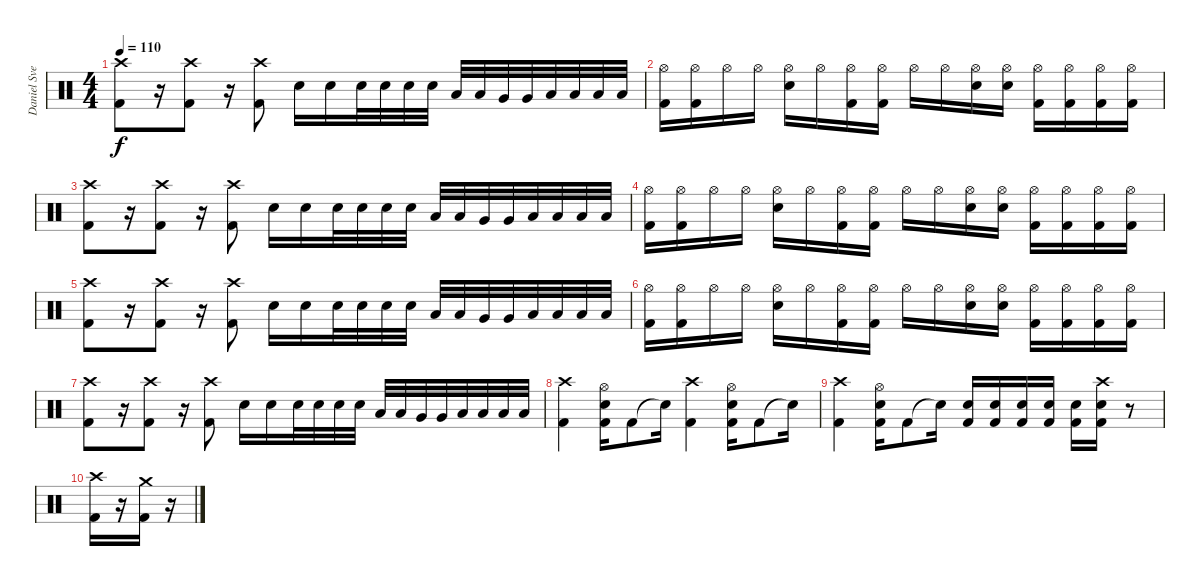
\track ("Daniel Svensson" "Daniel Sve") {instrument percussion}
\staff {score}
\articulation defaults
\ts (4 4)
\tempo 110
\clef neutral
\ks c
("Crash high (hit)" "Kick (hit) 2").8{dy f} r.16 ("Crash high (hit)" "Kick (hit) 2").8 r.16 ("Crash high (hit)" "Kick (hit) 2").8 "Snare (hit) 2".16 "Snare (hit) 2".16 "Snare (hit) 2".32 "Snare (hit) 2".32 "Snare (hit) 2".32 "Snare (hit) 2".32 "Low Tom (hit)".32 "Low Tom (hit)".32 "Very Low Tom (hit)".32 "Very Low Tom (hit)".32 "Low Floor Tom (hit)".32 "Low Floor Tom (hit)".32 "Low Floor Tom (hit)".32 "Low Floor Tom (hit)".32 |
("Hi-Hat (open)" "Kick (hit) 2").16 ("Hi-Hat (open)" "Kick (hit) 2").16 "Hi-Hat (open)".16 "Hi-Hat (open)".16 ("Hi-Hat (open)" "Snare (hit) 2").16 "Hi-Hat (open)".16 ("Hi-Hat (open)" "Kick (hit) 2").16 ("Hi-Hat (open)" "Kick (hit) 2").16 "Hi-Hat (open)".16 "Hi-Hat (open)".16 ("Hi-Hat (open)" "Snare (hit) 2").16 ("Hi-Hat (open)" "Snare (hit) 2").16 ("Hi-Hat (open)" "Kick (hit) 2").16 ("Hi-Hat (open)" "Kick (hit) 2").16 ("Hi-Hat (open)" "Kick (hit) 2").16 ("Hi-Hat (open)" "Kick (hit) 2").16 |
("Crash high (hit)" "Kick (hit) 2").8 r.16 ("Crash high (hit)" "Kick (hit) 2").8 r.16 ("Crash high (hit)" "Kick (hit) 2").8 "Snare (hit) 2".16 "Snare (hit) 2".16 "Snare (hit) 2".32 "Snare (hit) 2".32 "Snare (hit) 2".32 "Snare (hit) 2".32 "Low Tom (hit)".32 "Low Tom (hit)".32 "Very Low Tom (hit)".32 "Very Low Tom (hit)".32 "Low Floor Tom (hit)".32 "Low Floor Tom (hit)".32 "Low Floor Tom (hit)".32 "Low Floor Tom (hit)".32 |
("Hi-Hat (open)" "Kick (hit) 2").16 ("Hi-Hat (open)" "Kick (hit) 2").16 "Hi-Hat (open)".16 "Hi-Hat (open)".16 ("Hi-Hat (open)" "Snare (hit) 2").16 "Hi-Hat (open)".16 ("Hi-Hat (open)" "Kick (hit) 2").16 ("Hi-Hat (open)" "Kick (hit) 2").16 "Hi-Hat (open)".16 "Hi-Hat (open)".16 ("Hi-Hat (open)" "Snare (hit) 2").16 ("Hi-Hat (open)" "Snare (hit) 2").16 ("Hi-Hat (open)" "Kick (hit) 2").16 ("Hi-Hat (open)" "Kick (hit) 2").16 ("Hi-Hat (open)" "Kick (hit) 2").16 ("Hi-Hat (open)" "Kick (hit) 2").16 |
("Crash high (hit)" "Kick (hit) 2").8 r.16 ("Crash high (hit)" "Kick (hit) 2").8 r.16 ("Crash high (hit)" "Kick (hit) 2").8 "Snare (hit) 2".16 "Snare (hit) 2".16 "Snare (hit) 2".32 "Snare (hit) 2".32 "Snare (hit) 2".32 "Snare (hit) 2".32 "Low Tom (hit)".32 "Low Tom (hit)".32 "Very Low Tom (hit)".32 "Very Low Tom (hit)".32 "Low Floor Tom (hit)".32 "Low Floor Tom (hit)".32 "Low Floor Tom (hit)".32 "Low Floor Tom (hit)".32 |
("Hi-Hat (open)" "Kick (hit) 2").16 ("Hi-Hat (open)" "Kick (hit) 2").16 "Hi-Hat (open)".16 "Hi-Hat (open)".16 ("Hi-Hat (open)" "Snare (hit) 2").16 "Hi-Hat (open)".16 ("Hi-Hat (open)" "Kick (hit) 2").16 ("Hi-Hat (open)" "Kick (hit) 2").16 "Hi-Hat (open)".16 "Hi-Hat (open)".16 ("Hi-Hat (open)" "Snare (hit) 2").16 ("Hi-Hat (open)" "Snare (hit) 2").16 ("Hi-Hat (open)" "Kick (hit) 2").16 ("Hi-Hat (open)" "Kick (hit) 2").16 ("Hi-Hat (open)" "Kick (hit) 2").16 ("Hi-Hat (open)" "Kick (hit) 2").16 |
("Crash high (hit)" "Kick (hit) 2").8 r.16 ("Crash high (hit)" "Kick (hit) 2").8 r.16 ("Crash high (hit)" "Kick (hit) 2").8 "Snare (hit) 2".16 "Snare (hit) 2".16 "Snare (hit) 2".32 "Snare (hit) 2".32 "Snare (hit) 2".32 "Snare (hit) 2".32 "Low Tom (hit)".32 "Low Tom (hit)".32 "Very Low Tom (hit)".32 "Very Low Tom (hit)".32 "Low Floor Tom (hit)".32 "Low Floor Tom (hit)".32 "Low Floor Tom (hit)".32 "Low Floor Tom (hit)".32 |
("Crash high (hit)" "Kick (hit) 2").4 ("Hi-Hat (open)" "Snare (hit) 2" "Kick (hit) 2").16 "Kick (hit) 2".8 "Snare (hit)"{t}.16 ("Crash high (hit)" "Kick (hit) 2").4 ("Hi-Hat (open)" "Snare (hit) 2" "Kick (hit) 2").16 "Kick (hit) 2".8 "Snare (hit)"{t}.16 |
("Crash high (hit)" "Kick (hit) 2").4 ("Hi-Hat (open)" "Snare (hit) 2" "Kick (hit) 2").16 "Kick (hit) 2".8 "Snare (hit)"{t}.16 ("Snare (hit) 2" "Kick (hit) 2").16 ("Snare (hit) 2" "Kick (hit) 2").16 ("Snare (hit) 2" "Kick (hit) 2").16 ("Snare (hit) 2" "Kick (hit) 2").16 ("Snare (hit) 2" "Kick (hit) 2").16 ("Crash high (hit)" "Snare (hit) 2" "Kick (hit) 2").16 r.8 |
("Crash high (hit)" "Kick (hit) 2").16 r.16 ("Crash medium (hit)" "Kick (hit) 2").16 r.16
